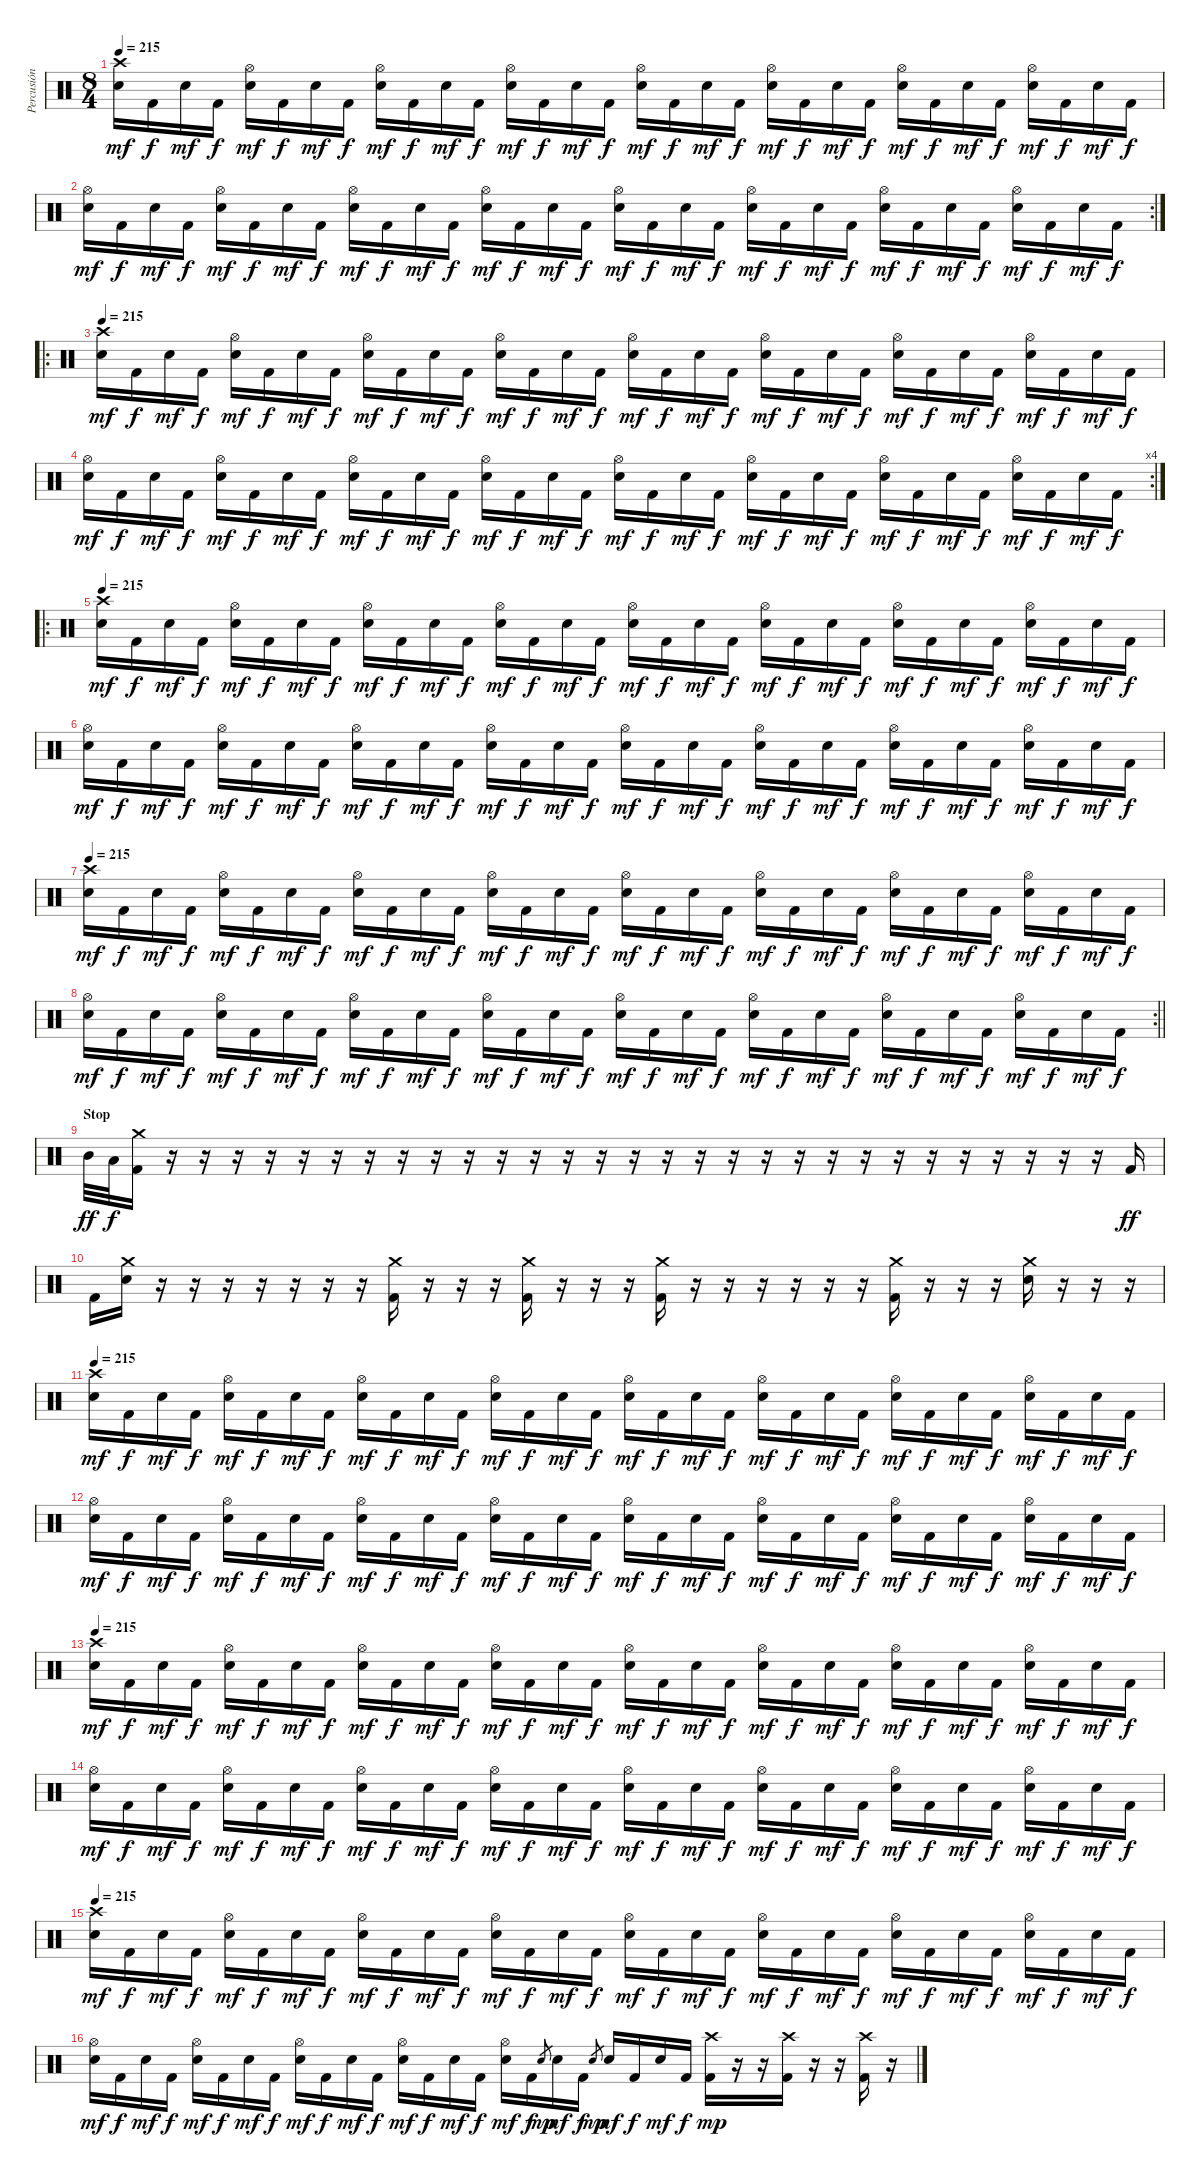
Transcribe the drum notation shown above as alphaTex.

\track ("Percusión" "Percusión") {instrument percussion}
\staff {score}
\articulation defaults
\ts (8 4)
\tempo 215
\clef neutral
\ks c
("Crash high (hit)" "Electric Snare (hit)").16{dy mf} "Kick (hit) 2".16{dy f} "Electric Snare (hit)".16{dy mf} "Kick (hit) 2".16{dy f} ("Hi-Hat (open)" "Electric Snare (hit)").16{dy mf} "Kick (hit) 2".16{dy f} "Electric Snare (hit)".16{dy mf} "Kick (hit) 2".16{dy f} ("Hi-Hat (open)" "Electric Snare (hit)").16{dy mf} "Kick (hit) 2".16{dy f} "Electric Snare (hit)".16{dy mf} "Kick (hit) 2".16{dy f} ("Hi-Hat (open)" "Electric Snare (hit)").16{dy mf} "Kick (hit) 2".16{dy f} "Electric Snare (hit)".16{dy mf} "Kick (hit) 2".16{dy f} ("Hi-Hat (open)" "Electric Snare (hit)").16{dy mf} "Kick (hit) 2".16{dy f} "Electric Snare (hit)".16{dy mf} "Kick (hit) 2".16{dy f} ("Hi-Hat (open)" "Electric Snare (hit)").16{dy mf} "Kick (hit) 2".16{dy f} "Electric Snare (hit)".16{dy mf} "Kick (hit) 2".16{dy f} ("Hi-Hat (open)" "Electric Snare (hit)").16{dy mf} "Kick (hit) 2".16{dy f} "Electric Snare (hit)".16{dy mf} "Kick (hit) 2".16{dy f} ("Hi-Hat (open)" "Electric Snare (hit)").16{dy mf} "Kick (hit) 2".16{dy f} "Electric Snare (hit)".16{dy mf} "Kick (hit) 2".16{dy f} |
\rc 2
("Hi-Hat (open)" "Electric Snare (hit)").16{dy mf} "Kick (hit) 2".16{dy f} "Electric Snare (hit)".16{dy mf} "Kick (hit) 2".16{dy f} ("Hi-Hat (open)" "Electric Snare (hit)").16{dy mf} "Kick (hit) 2".16{dy f} "Electric Snare (hit)".16{dy mf} "Kick (hit) 2".16{dy f} ("Hi-Hat (open)" "Electric Snare (hit)").16{dy mf} "Kick (hit) 2".16{dy f} "Electric Snare (hit)".16{dy mf} "Kick (hit) 2".16{dy f} ("Hi-Hat (open)" "Electric Snare (hit)").16{dy mf} "Kick (hit) 2".16{dy f} "Electric Snare (hit)".16{dy mf} "Kick (hit) 2".16{dy f} ("Hi-Hat (open)" "Electric Snare (hit)").16{dy mf} "Kick (hit) 2".16{dy f} "Electric Snare (hit)".16{dy mf} "Kick (hit) 2".16{dy f} ("Hi-Hat (open)" "Electric Snare (hit)").16{dy mf} "Kick (hit) 2".16{dy f} "Electric Snare (hit)".16{dy mf} "Kick (hit) 2".16{dy f} ("Hi-Hat (open)" "Electric Snare (hit)").16{dy mf} "Kick (hit) 2".16{dy f} "Electric Snare (hit)".16{dy mf} "Kick (hit) 2".16{dy f} ("Hi-Hat (open)" "Electric Snare (hit)").16{dy mf} "Kick (hit) 2".16{dy f} "Electric Snare (hit)".16{dy mf} "Kick (hit) 2".16{dy f} |
\ro
\tempo 215
("Crash high (hit)" "Electric Snare (hit)").16{dy mf} "Kick (hit) 2".16{dy f} "Electric Snare (hit)".16{dy mf} "Kick (hit) 2".16{dy f} ("Hi-Hat (open)" "Electric Snare (hit)").16{dy mf} "Kick (hit) 2".16{dy f} "Electric Snare (hit)".16{dy mf} "Kick (hit) 2".16{dy f} ("Hi-Hat (open)" "Electric Snare (hit)").16{dy mf} "Kick (hit) 2".16{dy f} "Electric Snare (hit)".16{dy mf} "Kick (hit) 2".16{dy f} ("Hi-Hat (open)" "Electric Snare (hit)").16{dy mf} "Kick (hit) 2".16{dy f} "Electric Snare (hit)".16{dy mf} "Kick (hit) 2".16{dy f} ("Hi-Hat (open)" "Electric Snare (hit)").16{dy mf} "Kick (hit) 2".16{dy f} "Electric Snare (hit)".16{dy mf} "Kick (hit) 2".16{dy f} ("Hi-Hat (open)" "Electric Snare (hit)").16{dy mf} "Kick (hit) 2".16{dy f} "Electric Snare (hit)".16{dy mf} "Kick (hit) 2".16{dy f} ("Hi-Hat (open)" "Electric Snare (hit)").16{dy mf} "Kick (hit) 2".16{dy f} "Electric Snare (hit)".16{dy mf} "Kick (hit) 2".16{dy f} ("Hi-Hat (open)" "Electric Snare (hit)").16{dy mf} "Kick (hit) 2".16{dy f} "Electric Snare (hit)".16{dy mf} "Kick (hit) 2".16{dy f} |
\rc 4
("Hi-Hat (open)" "Electric Snare (hit)").16{dy mf} "Kick (hit) 2".16{dy f} "Electric Snare (hit)".16{dy mf} "Kick (hit) 2".16{dy f} ("Hi-Hat (open)" "Electric Snare (hit)").16{dy mf} "Kick (hit) 2".16{dy f} "Electric Snare (hit)".16{dy mf} "Kick (hit) 2".16{dy f} ("Hi-Hat (open)" "Electric Snare (hit)").16{dy mf} "Kick (hit) 2".16{dy f} "Electric Snare (hit)".16{dy mf} "Kick (hit) 2".16{dy f} ("Hi-Hat (open)" "Electric Snare (hit)").16{dy mf} "Kick (hit) 2".16{dy f} "Electric Snare (hit)".16{dy mf} "Kick (hit) 2".16{dy f} ("Hi-Hat (open)" "Electric Snare (hit)").16{dy mf} "Kick (hit) 2".16{dy f} "Electric Snare (hit)".16{dy mf} "Kick (hit) 2".16{dy f} ("Hi-Hat (open)" "Electric Snare (hit)").16{dy mf} "Kick (hit) 2".16{dy f} "Electric Snare (hit)".16{dy mf} "Kick (hit) 2".16{dy f} ("Hi-Hat (open)" "Electric Snare (hit)").16{dy mf} "Kick (hit) 2".16{dy f} "Electric Snare (hit)".16{dy mf} "Kick (hit) 2".16{dy f} ("Hi-Hat (open)" "Electric Snare (hit)").16{dy mf} "Kick (hit) 2".16{dy f} "Electric Snare (hit)".16{dy mf} "Kick (hit) 2".16{dy f} |
\ro
\tempo 215
("Crash high (hit)" "Electric Snare (hit)").16{dy mf} "Kick (hit) 2".16{dy f} "Electric Snare (hit)".16{dy mf} "Kick (hit) 2".16{dy f} ("Hi-Hat (open)" "Electric Snare (hit)").16{dy mf} "Kick (hit) 2".16{dy f} "Electric Snare (hit)".16{dy mf} "Kick (hit) 2".16{dy f} ("Hi-Hat (open)" "Electric Snare (hit)").16{dy mf} "Kick (hit) 2".16{dy f} "Electric Snare (hit)".16{dy mf} "Kick (hit) 2".16{dy f} ("Hi-Hat (open)" "Electric Snare (hit)").16{dy mf} "Kick (hit) 2".16{dy f} "Electric Snare (hit)".16{dy mf} "Kick (hit) 2".16{dy f} ("Hi-Hat (open)" "Electric Snare (hit)").16{dy mf} "Kick (hit) 2".16{dy f} "Electric Snare (hit)".16{dy mf} "Kick (hit) 2".16{dy f} ("Hi-Hat (open)" "Electric Snare (hit)").16{dy mf} "Kick (hit) 2".16{dy f} "Electric Snare (hit)".16{dy mf} "Kick (hit) 2".16{dy f} ("Hi-Hat (open)" "Electric Snare (hit)").16{dy mf} "Kick (hit) 2".16{dy f} "Electric Snare (hit)".16{dy mf} "Kick (hit) 2".16{dy f} ("Hi-Hat (open)" "Electric Snare (hit)").16{dy mf} "Kick (hit) 2".16{dy f} "Electric Snare (hit)".16{dy mf} "Kick (hit) 2".16{dy f} |
("Hi-Hat (open)" "Electric Snare (hit)").16{dy mf} "Kick (hit) 2".16{dy f} "Electric Snare (hit)".16{dy mf} "Kick (hit) 2".16{dy f} ("Hi-Hat (open)" "Electric Snare (hit)").16{dy mf} "Kick (hit) 2".16{dy f} "Electric Snare (hit)".16{dy mf} "Kick (hit) 2".16{dy f} ("Hi-Hat (open)" "Electric Snare (hit)").16{dy mf} "Kick (hit) 2".16{dy f} "Electric Snare (hit)".16{dy mf} "Kick (hit) 2".16{dy f} ("Hi-Hat (open)" "Electric Snare (hit)").16{dy mf} "Kick (hit) 2".16{dy f} "Electric Snare (hit)".16{dy mf} "Kick (hit) 2".16{dy f} ("Hi-Hat (open)" "Electric Snare (hit)").16{dy mf} "Kick (hit) 2".16{dy f} "Electric Snare (hit)".16{dy mf} "Kick (hit) 2".16{dy f} ("Hi-Hat (open)" "Electric Snare (hit)").16{dy mf} "Kick (hit) 2".16{dy f} "Electric Snare (hit)".16{dy mf} "Kick (hit) 2".16{dy f} ("Hi-Hat (open)" "Electric Snare (hit)").16{dy mf} "Kick (hit) 2".16{dy f} "Electric Snare (hit)".16{dy mf} "Kick (hit) 2".16{dy f} ("Hi-Hat (open)" "Electric Snare (hit)").16{dy mf} "Kick (hit) 2".16{dy f} "Electric Snare (hit)".16{dy mf} "Kick (hit) 2".16{dy f} |
\tempo 215
("Crash high (hit)" "Electric Snare (hit)").16{dy mf} "Kick (hit) 2".16{dy f} "Electric Snare (hit)".16{dy mf} "Kick (hit) 2".16{dy f} ("Hi-Hat (open)" "Electric Snare (hit)").16{dy mf} "Kick (hit) 2".16{dy f} "Electric Snare (hit)".16{dy mf} "Kick (hit) 2".16{dy f} ("Hi-Hat (open)" "Electric Snare (hit)").16{dy mf} "Kick (hit) 2".16{dy f} "Electric Snare (hit)".16{dy mf} "Kick (hit) 2".16{dy f} ("Hi-Hat (open)" "Electric Snare (hit)").16{dy mf} "Kick (hit) 2".16{dy f} "Electric Snare (hit)".16{dy mf} "Kick (hit) 2".16{dy f} ("Hi-Hat (open)" "Electric Snare (hit)").16{dy mf} "Kick (hit) 2".16{dy f} "Electric Snare (hit)".16{dy mf} "Kick (hit) 2".16{dy f} ("Hi-Hat (open)" "Electric Snare (hit)").16{dy mf} "Kick (hit) 2".16{dy f} "Electric Snare (hit)".16{dy mf} "Kick (hit) 2".16{dy f} ("Hi-Hat (open)" "Electric Snare (hit)").16{dy mf} "Kick (hit) 2".16{dy f} "Electric Snare (hit)".16{dy mf} "Kick (hit) 2".16{dy f} ("Hi-Hat (open)" "Electric Snare (hit)").16{dy mf} "Kick (hit) 2".16{dy f} "Electric Snare (hit)".16{dy mf} "Kick (hit) 2".16{dy f} |
\rc 2
\barLineRight lightlight
("Hi-Hat (open)" "Electric Snare (hit)").16{dy mf} "Kick (hit) 2".16{dy f} "Electric Snare (hit)".16{dy mf} "Kick (hit) 2".16{dy f} ("Hi-Hat (open)" "Electric Snare (hit)").16{dy mf} "Kick (hit) 2".16{dy f} "Electric Snare (hit)".16{dy mf} "Kick (hit) 2".16{dy f} ("Hi-Hat (open)" "Electric Snare (hit)").16{dy mf} "Kick (hit) 2".16{dy f} "Electric Snare (hit)".16{dy mf} "Kick (hit) 2".16{dy f} ("Hi-Hat (open)" "Electric Snare (hit)").16{dy mf} "Kick (hit) 2".16{dy f} "Electric Snare (hit)".16{dy mf} "Kick (hit) 2".16{dy f} ("Hi-Hat (open)" "Electric Snare (hit)").16{dy mf} "Kick (hit) 2".16{dy f} "Electric Snare (hit)".16{dy mf} "Kick (hit) 2".16{dy f} ("Hi-Hat (open)" "Electric Snare (hit)").16{dy mf} "Kick (hit) 2".16{dy f} "Electric Snare (hit)".16{dy mf} "Kick (hit) 2".16{dy f} ("Hi-Hat (open)" "Electric Snare (hit)").16{dy mf} "Kick (hit) 2".16{dy f} "Electric Snare (hit)".16{dy mf} "Kick (hit) 2".16{dy f} ("Hi-Hat (open)" "Electric Snare (hit)").16{dy mf} "Kick (hit) 2".16{dy f} "Electric Snare (hit)".16{dy mf} "Kick (hit) 2".16{dy f} |
\section ("" "Stop")
"Mid Tom (hit)".32{dy ff} "Low Tom (hit)".32{dy f} ("Crash medium (hit)" "Kick (hit) 2").16 r.16 r.16 r.16 r.16 r.16 r.16 r.16 r.16 r.16 r.16 r.16 r.16 r.16 r.16 r.16 r.16 r.16 r.16 r.16 r.16 r.16 r.16 r.16 r.16 r.16 r.16 r.16 r.16 r.16 "Kick (hit) 2".16{dy ff} |
"Kick (hit) 2".16 ("Crash medium (hit)" "Electric Snare (hit)").16 r.16 r.16 r.16 r.16 r.16 r.16 r.16 ("Crash medium (hit)" "Kick (hit) 2").16 r.16 r.16 r.16 ("Crash medium (hit)" "Kick (hit) 2").16 r.16 r.16 r.16 ("Crash medium (hit)" "Kick (hit) 2").16 r.16 r.16 r.16 r.16 r.16 r.16 ("Crash medium (hit)" "Kick (hit) 2").16 r.16 r.16 r.16 ("Crash medium (hit)" "Electric Snare (hit)").16 r.16 r.16 r.16 |
\tempo 215
("Crash high (hit)" "Electric Snare (hit)").16{dy mf} "Kick (hit) 2".16{dy f} "Electric Snare (hit)".16{dy mf} "Kick (hit) 2".16{dy f} ("Hi-Hat (open)" "Electric Snare (hit)").16{dy mf} "Kick (hit) 2".16{dy f} "Electric Snare (hit)".16{dy mf} "Kick (hit) 2".16{dy f} ("Hi-Hat (open)" "Electric Snare (hit)").16{dy mf} "Kick (hit) 2".16{dy f} "Electric Snare (hit)".16{dy mf} "Kick (hit) 2".16{dy f} ("Hi-Hat (open)" "Electric Snare (hit)").16{dy mf} "Kick (hit) 2".16{dy f} "Electric Snare (hit)".16{dy mf} "Kick (hit) 2".16{dy f} ("Hi-Hat (open)" "Electric Snare (hit)").16{dy mf} "Kick (hit) 2".16{dy f} "Electric Snare (hit)".16{dy mf} "Kick (hit) 2".16{dy f} ("Hi-Hat (open)" "Electric Snare (hit)").16{dy mf} "Kick (hit) 2".16{dy f} "Electric Snare (hit)".16{dy mf} "Kick (hit) 2".16{dy f} ("Hi-Hat (open)" "Electric Snare (hit)").16{dy mf} "Kick (hit) 2".16{dy f} "Electric Snare (hit)".16{dy mf} "Kick (hit) 2".16{dy f} ("Hi-Hat (open)" "Electric Snare (hit)").16{dy mf} "Kick (hit) 2".16{dy f} "Electric Snare (hit)".16{dy mf} "Kick (hit) 2".16{dy f} |
("Hi-Hat (open)" "Electric Snare (hit)").16{dy mf} "Kick (hit) 2".16{dy f} "Electric Snare (hit)".16{dy mf} "Kick (hit) 2".16{dy f} ("Hi-Hat (open)" "Electric Snare (hit)").16{dy mf} "Kick (hit) 2".16{dy f} "Electric Snare (hit)".16{dy mf} "Kick (hit) 2".16{dy f} ("Hi-Hat (open)" "Electric Snare (hit)").16{dy mf} "Kick (hit) 2".16{dy f} "Electric Snare (hit)".16{dy mf} "Kick (hit) 2".16{dy f} ("Hi-Hat (open)" "Electric Snare (hit)").16{dy mf} "Kick (hit) 2".16{dy f} "Electric Snare (hit)".16{dy mf} "Kick (hit) 2".16{dy f} ("Hi-Hat (open)" "Electric Snare (hit)").16{dy mf} "Kick (hit) 2".16{dy f} "Electric Snare (hit)".16{dy mf} "Kick (hit) 2".16{dy f} ("Hi-Hat (open)" "Electric Snare (hit)").16{dy mf} "Kick (hit) 2".16{dy f} "Electric Snare (hit)".16{dy mf} "Kick (hit) 2".16{dy f} ("Hi-Hat (open)" "Electric Snare (hit)").16{dy mf} "Kick (hit) 2".16{dy f} "Electric Snare (hit)".16{dy mf} "Kick (hit) 2".16{dy f} ("Hi-Hat (open)" "Electric Snare (hit)").16{dy mf} "Kick (hit) 2".16{dy f} "Electric Snare (hit)".16{dy mf} "Kick (hit) 2".16{dy f} |
\tempo 215
("Crash high (hit)" "Electric Snare (hit)").16{dy mf} "Kick (hit) 2".16{dy f} "Electric Snare (hit)".16{dy mf} "Kick (hit) 2".16{dy f} ("Hi-Hat (open)" "Electric Snare (hit)").16{dy mf} "Kick (hit) 2".16{dy f} "Electric Snare (hit)".16{dy mf} "Kick (hit) 2".16{dy f} ("Hi-Hat (open)" "Electric Snare (hit)").16{dy mf} "Kick (hit) 2".16{dy f} "Electric Snare (hit)".16{dy mf} "Kick (hit) 2".16{dy f} ("Hi-Hat (open)" "Electric Snare (hit)").16{dy mf} "Kick (hit) 2".16{dy f} "Electric Snare (hit)".16{dy mf} "Kick (hit) 2".16{dy f} ("Hi-Hat (open)" "Electric Snare (hit)").16{dy mf} "Kick (hit) 2".16{dy f} "Electric Snare (hit)".16{dy mf} "Kick (hit) 2".16{dy f} ("Hi-Hat (open)" "Electric Snare (hit)").16{dy mf} "Kick (hit) 2".16{dy f} "Electric Snare (hit)".16{dy mf} "Kick (hit) 2".16{dy f} ("Hi-Hat (open)" "Electric Snare (hit)").16{dy mf} "Kick (hit) 2".16{dy f} "Electric Snare (hit)".16{dy mf} "Kick (hit) 2".16{dy f} ("Hi-Hat (open)" "Electric Snare (hit)").16{dy mf} "Kick (hit) 2".16{dy f} "Electric Snare (hit)".16{dy mf} "Kick (hit) 2".16{dy f} |
("Hi-Hat (open)" "Electric Snare (hit)").16{dy mf} "Kick (hit) 2".16{dy f} "Electric Snare (hit)".16{dy mf} "Kick (hit) 2".16{dy f} ("Hi-Hat (open)" "Electric Snare (hit)").16{dy mf} "Kick (hit) 2".16{dy f} "Electric Snare (hit)".16{dy mf} "Kick (hit) 2".16{dy f} ("Hi-Hat (open)" "Electric Snare (hit)").16{dy mf} "Kick (hit) 2".16{dy f} "Electric Snare (hit)".16{dy mf} "Kick (hit) 2".16{dy f} ("Hi-Hat (open)" "Electric Snare (hit)").16{dy mf} "Kick (hit) 2".16{dy f} "Electric Snare (hit)".16{dy mf} "Kick (hit) 2".16{dy f} ("Hi-Hat (open)" "Electric Snare (hit)").16{dy mf} "Kick (hit) 2".16{dy f} "Electric Snare (hit)".16{dy mf} "Kick (hit) 2".16{dy f} ("Hi-Hat (open)" "Electric Snare (hit)").16{dy mf} "Kick (hit) 2".16{dy f} "Electric Snare (hit)".16{dy mf} "Kick (hit) 2".16{dy f} ("Hi-Hat (open)" "Electric Snare (hit)").16{dy mf} "Kick (hit) 2".16{dy f} "Electric Snare (hit)".16{dy mf} "Kick (hit) 2".16{dy f} ("Hi-Hat (open)" "Electric Snare (hit)").16{dy mf} "Kick (hit) 2".16{dy f} "Electric Snare (hit)".16{dy mf} "Kick (hit) 2".16{dy f} |
\tempo 215
("Crash high (hit)" "Electric Snare (hit)").16{dy mf} "Kick (hit) 2".16{dy f} "Electric Snare (hit)".16{dy mf} "Kick (hit) 2".16{dy f} ("Hi-Hat (open)" "Electric Snare (hit)").16{dy mf} "Kick (hit) 2".16{dy f} "Electric Snare (hit)".16{dy mf} "Kick (hit) 2".16{dy f} ("Hi-Hat (open)" "Electric Snare (hit)").16{dy mf} "Kick (hit) 2".16{dy f} "Electric Snare (hit)".16{dy mf} "Kick (hit) 2".16{dy f} ("Hi-Hat (open)" "Electric Snare (hit)").16{dy mf} "Kick (hit) 2".16{dy f} "Electric Snare (hit)".16{dy mf} "Kick (hit) 2".16{dy f} ("Hi-Hat (open)" "Electric Snare (hit)").16{dy mf} "Kick (hit) 2".16{dy f} "Electric Snare (hit)".16{dy mf} "Kick (hit) 2".16{dy f} ("Hi-Hat (open)" "Electric Snare (hit)").16{dy mf} "Kick (hit) 2".16{dy f} "Electric Snare (hit)".16{dy mf} "Kick (hit) 2".16{dy f} ("Hi-Hat (open)" "Electric Snare (hit)").16{dy mf} "Kick (hit) 2".16{dy f} "Electric Snare (hit)".16{dy mf} "Kick (hit) 2".16{dy f} ("Hi-Hat (open)" "Electric Snare (hit)").16{dy mf} "Kick (hit) 2".16{dy f} "Electric Snare (hit)".16{dy mf} "Kick (hit) 2".16{dy f} |
("Hi-Hat (open)" "Electric Snare (hit)").16{dy mf} "Kick (hit) 2".16{dy f} "Electric Snare (hit)".16{dy mf} "Kick (hit) 2".16{dy f} ("Hi-Hat (open)" "Electric Snare (hit)").16{dy mf} "Kick (hit) 2".16{dy f} "Electric Snare (hit)".16{dy mf} "Kick (hit) 2".16{dy f} ("Hi-Hat (open)" "Electric Snare (hit)").16{dy mf} "Kick (hit) 2".16{dy f} "Electric Snare (hit)".16{dy mf} "Kick (hit) 2".16{dy f} ("Hi-Hat (open)" "Electric Snare (hit)").16{dy mf} "Kick (hit) 2".16{dy f} "Electric Snare (hit)".16{dy mf} "Kick (hit) 2".16{dy f} ("Hi-Hat (open)" "Electric Snare (hit)").16{dy mf} "Kick (hit) 2".16{dy f} "Electric Snare (hit)".8{gr dy mp} "Electric Snare (hit)".16{dy mf} "Kick (hit) 2".16{dy f} "Electric Snare (hit)".8{gr dy mp} "Electric Snare (hit)".16{dy mf} "Kick (hit) 2".16{dy f} "Electric Snare (hit)".16{dy mf} "Kick (hit) 2".16{dy f} ("Crash high (hit)" "Kick (hit) 2").16{dy mp} r.16 r.16 ("Crash high (hit)" "Kick (hit) 2").16 r.16 r.16 ("Crash high (hit)" "Kick (hit) 2").16 r.16
